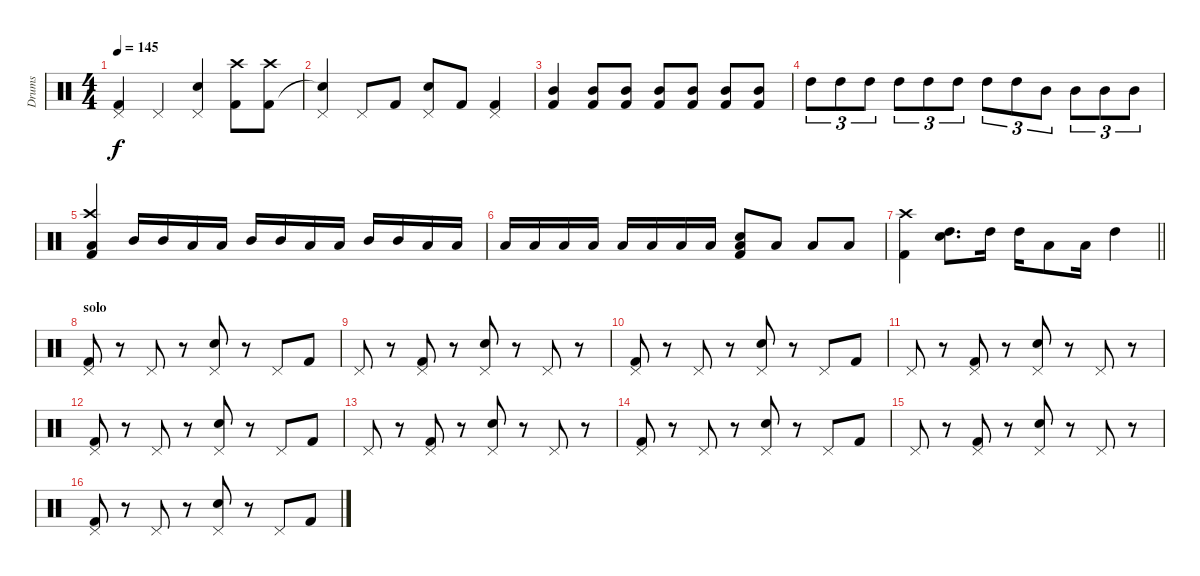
\track ("Drums" "Drums") {instrument percussion}
\staff {score}
\articulation defaults
\ts (4 4)
\tempo 145
\clef neutral
\ks c
("Pedal Hi-Hat (hit)" "Kick (hit) 2").4{dy f} "Pedal Hi-Hat (hit)".4 ("Pedal Hi-Hat (hit)" "Snare (hit) 2").4 ("Crash high (hit)" "Kick (hit) 2").8 ("Crash high (hit)" "Kick (hit) 2").8 |
("Pedal Hi-Hat (hit)" "Snare (hit)"{t}).4 "Pedal Hi-Hat (hit)".8 "Kick (hit) 2".8 ("Pedal Hi-Hat (hit)" "Snare (hit) 2").8 "Kick (hit) 2".8 ("Pedal Hi-Hat (hit)" "Kick (hit) 2").4 |
("Mid Tom (hit)" "Kick (hit) 2").4 ("Mid Tom (hit)" "Kick (hit) 2").8 ("Mid Tom (hit)" "Kick (hit) 2").8 ("Mid Tom (hit)" "Kick (hit) 2").8 ("Mid Tom (hit)" "Kick (hit) 2").8 ("Mid Tom (hit)" "Kick (hit) 2").8 ("Mid Tom (hit)" "Kick (hit) 2").8 |
"High Tom (hit)".8{tu (3 2)} "High Tom (hit)".8{tu (3 2)} "High Tom (hit)".8{tu (3 2)} "High Tom (hit)".8{tu (3 2)} "High Tom (hit)".8{tu (3 2)} "High Tom (hit)".8{tu (3 2)} "High Tom (hit)".8{tu (3 2)} "High Tom (hit)".8{tu (3 2)} "Mid Tom (hit)".8{tu (3 2)} "Mid Tom (hit)".8{tu (3 2)} "Mid Tom (hit)".8{tu (3 2)} "Mid Tom (hit)".8{tu (3 2)} |
("Low Tom (hit)" "Kick (hit) 2" "Crash high (hit)").4 "Mid Tom (hit)".16 "Mid Tom (hit)".16 "Low Tom (hit)".16 "Low Tom (hit)".16 "Mid Tom (hit)".16 "Mid Tom (hit)".16 "Low Tom (hit)".16 "Low Tom (hit)".16 "Mid Tom (hit)".16 "Mid Tom (hit)".16 "Low Tom (hit)".16 "Low Tom (hit)".16 |
"Low Tom (hit)".16 "Low Tom (hit)".16 "Low Tom (hit)".16 "Low Tom (hit)".16 "Low Tom (hit)".16 "Low Tom (hit)".16 "Low Tom (hit)".16 "Low Tom (hit)".16 ("Low Tom (hit)" "Kick (hit) 2" "Snare (hit) 2").8 "Low Tom (hit)".8 "Low Tom (hit)".8 "Low Tom (hit)".8 |
\barLineRight lightlight
("Kick (hit) 2" "Crash high (hit)").4 ("Snare (hit) 2" "High Tom (hit)").8{d} "High Tom (hit)".16 "High Tom (hit)".16 "Low Tom (hit)".8 "Low Tom (hit)".16 "High Tom (hit)".4 |
\section ("" "solo")
("Pedal Hi-Hat (hit)" "Kick (hit) 2").8 r.8 "Pedal Hi-Hat (hit)".8 r.8 ("Pedal Hi-Hat (hit)" "Snare (hit) 2").8 r.8 "Pedal Hi-Hat (hit)".8 "Kick (hit) 2".8 |
"Pedal Hi-Hat (hit)".8 r.8 ("Pedal Hi-Hat (hit)" "Kick (hit) 2").8 r.8 ("Pedal Hi-Hat (hit)" "Snare (hit) 2").8 r.8 "Pedal Hi-Hat (hit)".8 r.8 |
("Pedal Hi-Hat (hit)" "Kick (hit) 2").8 r.8 "Pedal Hi-Hat (hit)".8 r.8 ("Pedal Hi-Hat (hit)" "Snare (hit) 2").8 r.8 "Pedal Hi-Hat (hit)".8 "Kick (hit) 2".8 |
"Pedal Hi-Hat (hit)".8 r.8 ("Pedal Hi-Hat (hit)" "Kick (hit) 2").8 r.8 ("Pedal Hi-Hat (hit)" "Snare (hit) 2").8 r.8 "Pedal Hi-Hat (hit)".8 r.8 |
("Pedal Hi-Hat (hit)" "Kick (hit) 2").8 r.8 "Pedal Hi-Hat (hit)".8 r.8 ("Pedal Hi-Hat (hit)" "Snare (hit) 2").8 r.8 "Pedal Hi-Hat (hit)".8 "Kick (hit) 2".8 |
"Pedal Hi-Hat (hit)".8 r.8 ("Pedal Hi-Hat (hit)" "Kick (hit) 2").8 r.8 ("Pedal Hi-Hat (hit)" "Snare (hit) 2").8 r.8 "Pedal Hi-Hat (hit)".8 r.8 |
("Pedal Hi-Hat (hit)" "Kick (hit) 2").8 r.8 "Pedal Hi-Hat (hit)".8 r.8 ("Pedal Hi-Hat (hit)" "Snare (hit) 2").8 r.8 "Pedal Hi-Hat (hit)".8 "Kick (hit) 2".8 |
"Pedal Hi-Hat (hit)".8 r.8 ("Pedal Hi-Hat (hit)" "Kick (hit) 2").8 r.8 ("Pedal Hi-Hat (hit)" "Snare (hit) 2").8 r.8 "Pedal Hi-Hat (hit)".8 r.8 |
("Pedal Hi-Hat (hit)" "Kick (hit) 2").8 r.8 "Pedal Hi-Hat (hit)".8 r.8 ("Pedal Hi-Hat (hit)" "Snare (hit) 2").8 r.8 "Pedal Hi-Hat (hit)".8 "Kick (hit) 2".8
